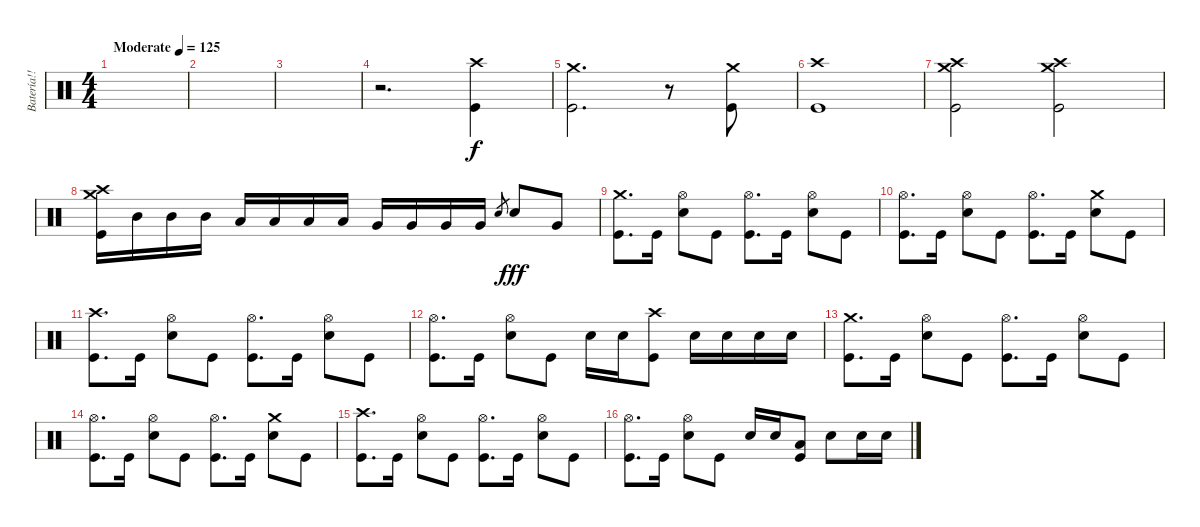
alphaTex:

\track ("Batería!! >_<" "Batería!! ") {instrument percussion}
\staff {score}
\articulation defaults
\ts (4 4)
\tempo (125 "Moderate")
\clef neutral
\ks c
|
|
|
r.2{d} ("Crash high (hit)" "Kick (hit)").4 |
("Crash medium (hit)" "Kick (hit)").2{d} r.8 ("Crash medium (hit)" "Kick (hit)").8 |
("Crash high (hit)" "Kick (hit)").1 |
("Crash medium (hit)" "Crash high (hit)" "Kick (hit)").2 ("Crash medium (hit)" "Crash high (hit)" "Kick (hit)").2 |
("Crash medium (hit)" "Crash high (hit)" "Kick (hit)").16 "Mid Tom (hit)".16 "Mid Tom (hit)".16 "Mid Tom (hit)".16 "Low Tom (hit)".16 "Low Tom (hit)".16 "Low Tom (hit)".16 "Low Tom (hit)".16 "Very Low Tom (hit)".16 "Very Low Tom (hit)".16 "Very Low Tom (hit)".16 "Very Low Tom (hit)".16 "Snare (hit) 2".8{gr dy f} "Snare (hit) 2".8{dy fff} "Very Low Tom (hit)".8 |
("Crash medium (hit)" "Kick (hit)").8{d} "Kick (hit)".16 ("Hi-Hat (open)" "Snare (hit) 2").8 "Kick (hit)".8 ("Hi-Hat (open)" "Kick (hit)").8{d} "Kick (hit)".16 ("Hi-Hat (open)" "Snare (hit) 2").8 "Kick (hit)".8 |
("Hi-Hat (open)" "Kick (hit)").8{d} "Kick (hit)".16 ("Hi-Hat (open)" "Snare (hit) 2").8 "Kick (hit)".8 ("Hi-Hat (open)" "Kick (hit)").8{d} "Kick (hit)".16 ("Crash medium (hit)" "Snare (hit) 2").8 "Kick (hit)".8 |
("Crash high (hit)" "Kick (hit)").8{d} "Kick (hit)".16 ("Hi-Hat (open)" "Snare (hit) 2").8 "Kick (hit)".8 ("Hi-Hat (open)" "Kick (hit)").8{d} "Kick (hit)".16 ("Hi-Hat (open)" "Snare (hit) 2").8 "Kick (hit)".8 |
("Hi-Hat (open)" "Kick (hit)").8{d} "Kick (hit)".16 ("Hi-Hat (open)" "Snare (hit) 2").8 "Kick (hit)".8 "Snare (hit) 2".16 "Snare (hit) 2".16 ("Crash high (hit)" "Kick (hit)").8 "Snare (hit) 2".16 "Snare (hit) 2".16 "Snare (hit) 2".16 "Snare (hit) 2".16 |
("Crash medium (hit)" "Kick (hit)").8{d} "Kick (hit)".16 ("Hi-Hat (open)" "Snare (hit) 2").8 "Kick (hit)".8 ("Hi-Hat (open)" "Kick (hit)").8{d} "Kick (hit)".16 ("Hi-Hat (open)" "Snare (hit) 2").8 "Kick (hit)".8 |
("Hi-Hat (open)" "Kick (hit)").8{d} "Kick (hit)".16 ("Hi-Hat (open)" "Snare (hit) 2").8 "Kick (hit)".8 ("Hi-Hat (open)" "Kick (hit)").8{d} "Kick (hit)".16 ("Crash medium (hit)" "Snare (hit) 2").8 "Kick (hit)".8 |
("Crash high (hit)" "Kick (hit)").8{d} "Kick (hit)".16 ("Hi-Hat (open)" "Snare (hit) 2").8 "Kick (hit)".8 ("Hi-Hat (open)" "Kick (hit)").8{d} "Kick (hit)".16 ("Hi-Hat (open)" "Snare (hit) 2").8 "Kick (hit)".8 |
("Hi-Hat (open)" "Kick (hit)").8{d} "Kick (hit)".16 ("Hi-Hat (open)" "Snare (hit) 2").8 "Kick (hit)".8 "Snare (hit) 2".16 "Snare (hit) 2".16 ("Low Tom (hit)" "Kick (hit)").8 "Snare (hit) 2".8 "Snare (hit) 2".16 "Snare (hit) 2".16
